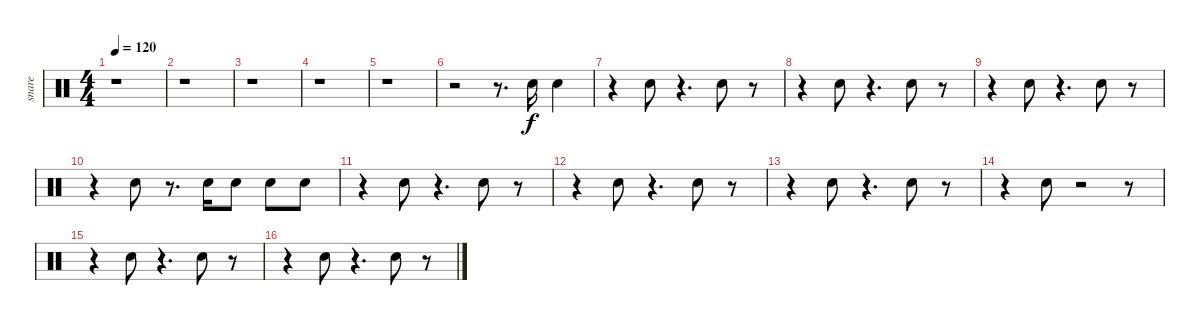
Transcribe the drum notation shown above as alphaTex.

\track ("snare" "snare") {instrument percussion}
\staff {score}
\articulation defaults
\ts (4 4)
\tempo 120
\clef neutral
\ks c
r.1{dy f} |
r.1 |
r.1 |
r.1 |
r.1 |
r.2 r.8{d} "Electric Snare (hit)".16 "Electric Snare (hit)".4 |
r.4 "Electric Snare (hit)".8 r.4{d} "Electric Snare (hit)".8 r.8 |
r.4 "Electric Snare (hit)".8 r.4{d} "Electric Snare (hit)".8 r.8 |
r.4 "Electric Snare (hit)".8 r.4{d} "Electric Snare (hit)".8 r.8 |
r.4 "Electric Snare (hit)".8 r.8{d} "Electric Snare (hit)".16 "Electric Snare (hit)".8 "Electric Snare (hit)".8 "Electric Snare (hit)".8 |
r.4 "Electric Snare (hit)".8 r.4{d} "Electric Snare (hit)".8 r.8 |
r.4 "Electric Snare (hit)".8 r.4{d} "Electric Snare (hit)".8 r.8 |
r.4 "Electric Snare (hit)".8 r.4{d} "Electric Snare (hit)".8 r.8 |
r.4 "Electric Snare (hit)".8 r.2 r.8 |
r.4 "Electric Snare (hit)".8 r.4{d} "Electric Snare (hit)".8 r.8 |
r.4 "Electric Snare (hit)".8 r.4{d} "Electric Snare (hit)".8 r.8
